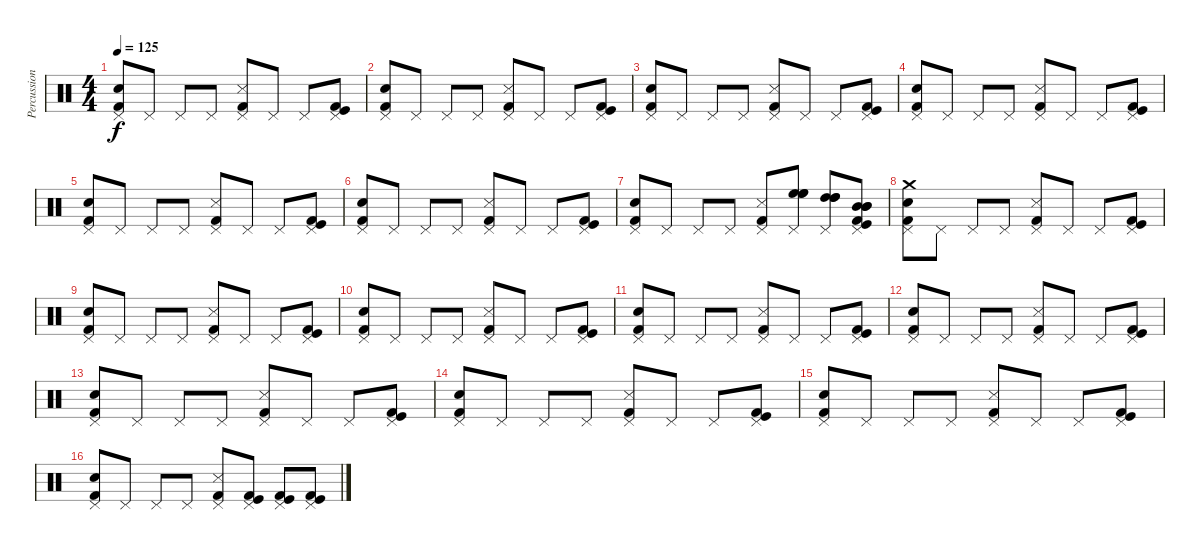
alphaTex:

\track ("Percussions" "Percussion") {instrument percussion}
\staff {score}
\articulation defaults
\ts (4 4)
\tempo 125
\clef neutral
\ks c
("Snare (hit) 2" "Kick (hit) 2" "Pedal Hi-Hat (hit)").8{dy f} "Pedal Hi-Hat (hit)".8 "Pedal Hi-Hat (hit)".8 "Pedal Hi-Hat (hit)".8 ("Metronome (hit)" "Kick (hit) 2" "Pedal Hi-Hat (hit)").8 "Pedal Hi-Hat (hit)".8 "Pedal Hi-Hat (hit)".8 ("Kick (hit) 2" "Kick (hit)" "Pedal Hi-Hat (hit)").8 |
("Snare (hit) 2" "Kick (hit) 2" "Pedal Hi-Hat (hit)").8 "Pedal Hi-Hat (hit)".8 "Pedal Hi-Hat (hit)".8 "Pedal Hi-Hat (hit)".8 ("Metronome (hit)" "Kick (hit) 2" "Pedal Hi-Hat (hit)").8 "Pedal Hi-Hat (hit)".8 "Pedal Hi-Hat (hit)".8 ("Kick (hit) 2" "Kick (hit)" "Pedal Hi-Hat (hit)").8 |
("Snare (hit) 2" "Kick (hit) 2" "Pedal Hi-Hat (hit)").8 "Pedal Hi-Hat (hit)".8 "Pedal Hi-Hat (hit)".8 "Pedal Hi-Hat (hit)".8 ("Metronome (hit)" "Kick (hit) 2" "Pedal Hi-Hat (hit)").8 "Pedal Hi-Hat (hit)".8 "Pedal Hi-Hat (hit)".8 ("Kick (hit) 2" "Kick (hit)" "Pedal Hi-Hat (hit)").8 |
("Snare (hit) 2" "Kick (hit) 2" "Pedal Hi-Hat (hit)").8 "Pedal Hi-Hat (hit)".8 "Pedal Hi-Hat (hit)".8 "Pedal Hi-Hat (hit)".8 ("Metronome (hit)" "Kick (hit) 2" "Pedal Hi-Hat (hit)").8 "Pedal Hi-Hat (hit)".8 "Pedal Hi-Hat (hit)".8 ("Kick (hit) 2" "Kick (hit)" "Pedal Hi-Hat (hit)").8 |
("Snare (hit) 2" "Kick (hit) 2" "Pedal Hi-Hat (hit)").8 "Pedal Hi-Hat (hit)".8 "Pedal Hi-Hat (hit)".8 "Pedal Hi-Hat (hit)".8 ("Metronome (hit)" "Kick (hit) 2" "Pedal Hi-Hat (hit)").8 "Pedal Hi-Hat (hit)".8 "Pedal Hi-Hat (hit)".8 ("Kick (hit) 2" "Kick (hit)" "Pedal Hi-Hat (hit)").8 |
("Snare (hit) 2" "Kick (hit) 2" "Pedal Hi-Hat (hit)").8 "Pedal Hi-Hat (hit)".8 "Pedal Hi-Hat (hit)".8 "Pedal Hi-Hat (hit)".8 ("Metronome (hit)" "Kick (hit) 2" "Pedal Hi-Hat (hit)").8 "Pedal Hi-Hat (hit)".8 "Pedal Hi-Hat (hit)".8 ("Kick (hit) 2" "Kick (hit)" "Pedal Hi-Hat (hit)").8 |
("Snare (hit) 2" "Kick (hit) 2" "Pedal Hi-Hat (hit)").8 "Pedal Hi-Hat (hit)".8 "Pedal Hi-Hat (hit)".8 "Pedal Hi-Hat (hit)".8 ("Metronome (hit)" "Kick (hit) 2" "Pedal Hi-Hat (hit)").8 ("High Floor Tom (hit)" "High Floor Tom (hit)" "Pedal Hi-Hat (hit)" "High Floor Tom (hit)").8 ("High Tom (hit)" "High Tom (hit)" "Pedal Hi-Hat (hit)" "High Tom (hit)").8 ("Mid Tom (hit)" "Mid Tom (hit)" "Kick (hit) 2" "Kick (hit)" "Pedal Hi-Hat (hit)" "Mid Tom (hit)").8 |
("Crash medium (hit)" "Snare (hit) 2" "Kick (hit) 2" "Pedal Hi-Hat (hit)").8 "Pedal Hi-Hat (hit)".8 "Pedal Hi-Hat (hit)".8 "Pedal Hi-Hat (hit)".8 ("Metronome (hit)" "Kick (hit) 2" "Pedal Hi-Hat (hit)").8 "Pedal Hi-Hat (hit)".8 "Pedal Hi-Hat (hit)".8 ("Kick (hit) 2" "Kick (hit)" "Pedal Hi-Hat (hit)").8 |
("Snare (hit) 2" "Kick (hit) 2" "Pedal Hi-Hat (hit)").8 "Pedal Hi-Hat (hit)".8 "Pedal Hi-Hat (hit)".8 "Pedal Hi-Hat (hit)".8 ("Metronome (hit)" "Kick (hit) 2" "Pedal Hi-Hat (hit)").8 "Pedal Hi-Hat (hit)".8 "Pedal Hi-Hat (hit)".8 ("Kick (hit) 2" "Kick (hit)" "Pedal Hi-Hat (hit)").8 |
("Snare (hit) 2" "Kick (hit) 2" "Pedal Hi-Hat (hit)").8 "Pedal Hi-Hat (hit)".8 "Pedal Hi-Hat (hit)".8 "Pedal Hi-Hat (hit)".8 ("Metronome (hit)" "Kick (hit) 2" "Pedal Hi-Hat (hit)").8 "Pedal Hi-Hat (hit)".8 "Pedal Hi-Hat (hit)".8 ("Kick (hit) 2" "Kick (hit)" "Pedal Hi-Hat (hit)").8 |
("Snare (hit) 2" "Kick (hit) 2" "Pedal Hi-Hat (hit)").8 "Pedal Hi-Hat (hit)".8 "Pedal Hi-Hat (hit)".8 "Pedal Hi-Hat (hit)".8 ("Metronome (hit)" "Kick (hit) 2" "Pedal Hi-Hat (hit)").8 "Pedal Hi-Hat (hit)".8 "Pedal Hi-Hat (hit)".8 ("Kick (hit) 2" "Kick (hit)" "Pedal Hi-Hat (hit)").8 |
("Snare (hit) 2" "Kick (hit) 2" "Pedal Hi-Hat (hit)").8 "Pedal Hi-Hat (hit)".8 "Pedal Hi-Hat (hit)".8 "Pedal Hi-Hat (hit)".8 ("Metronome (hit)" "Kick (hit) 2" "Pedal Hi-Hat (hit)").8 "Pedal Hi-Hat (hit)".8 "Pedal Hi-Hat (hit)".8 ("Kick (hit) 2" "Kick (hit)" "Pedal Hi-Hat (hit)").8 |
("Snare (hit) 2" "Kick (hit) 2" "Pedal Hi-Hat (hit)").8 "Pedal Hi-Hat (hit)".8 "Pedal Hi-Hat (hit)".8 "Pedal Hi-Hat (hit)".8 ("Metronome (hit)" "Kick (hit) 2" "Pedal Hi-Hat (hit)").8 "Pedal Hi-Hat (hit)".8 "Pedal Hi-Hat (hit)".8 ("Kick (hit) 2" "Kick (hit)" "Pedal Hi-Hat (hit)").8 |
("Snare (hit) 2" "Kick (hit) 2" "Pedal Hi-Hat (hit)").8 "Pedal Hi-Hat (hit)".8 "Pedal Hi-Hat (hit)".8 "Pedal Hi-Hat (hit)".8 ("Metronome (hit)" "Kick (hit) 2" "Pedal Hi-Hat (hit)").8 "Pedal Hi-Hat (hit)".8 "Pedal Hi-Hat (hit)".8 ("Kick (hit) 2" "Kick (hit)" "Pedal Hi-Hat (hit)").8 |
("Snare (hit) 2" "Kick (hit) 2" "Pedal Hi-Hat (hit)").8 "Pedal Hi-Hat (hit)".8 "Pedal Hi-Hat (hit)".8 "Pedal Hi-Hat (hit)".8 ("Metronome (hit)" "Kick (hit) 2" "Pedal Hi-Hat (hit)").8 "Pedal Hi-Hat (hit)".8 "Pedal Hi-Hat (hit)".8 ("Kick (hit) 2" "Kick (hit)" "Pedal Hi-Hat (hit)").8 |
("Snare (hit) 2" "Kick (hit) 2" "Pedal Hi-Hat (hit)").8 "Pedal Hi-Hat (hit)".8 "Pedal Hi-Hat (hit)".8 "Pedal Hi-Hat (hit)".8 ("Metronome (hit)" "Kick (hit) 2" "Pedal Hi-Hat (hit)").8 ("Kick (hit) 2" "Kick (hit)" "Pedal Hi-Hat (hit)").8 ("Kick (hit) 2" "Kick (hit)" "Pedal Hi-Hat (hit)").8 ("Kick (hit) 2" "Kick (hit)" "Pedal Hi-Hat (hit)").8
